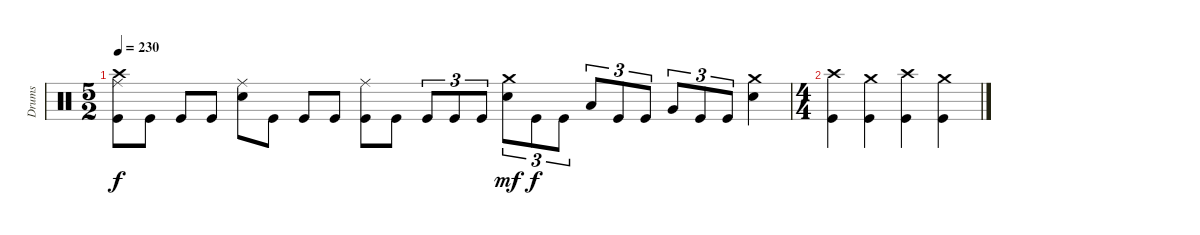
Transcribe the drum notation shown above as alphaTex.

\track ("Drums" "Drums") {instrument percussion}
\staff {score}
\articulation defaults
\ts (5 2)
\tempo 230
\clef neutral
\ks c
("Crash high (hit)" "Ride (middle)" "Kick (hit)").8{dy f} "Kick (hit)".8 "Kick (hit)".8 "Kick (hit)".8 ("Ride (middle)" "Electric Snare (hit)").8 "Kick (hit)".8 "Kick (hit)".8 "Kick (hit)".8 ("Ride (middle)" "Kick (hit)").8 "Kick (hit)".8 "Kick (hit)".8{tu (3 2)} "Kick (hit)".8{tu (3 2)} "Kick (hit)".8{tu (3 2)} ("Crash medium (hit)" "Electric Snare (hit)").8{tu (3 2) dy mf} "Kick (hit)".8{tu (3 2) dy f} "Kick (hit)".8{tu (3 2)} "Low Tom (hit)".8{tu (3 2)} "Kick (hit)".8{tu (3 2)} "Kick (hit)".8{tu (3 2)} "Very Low Tom (hit)".8{tu (3 2)} "Kick (hit)".8{tu (3 2)} "Kick (hit)".8{tu (3 2)} ("Crash medium (hit)" "Electric Snare (hit)").4 |
\ts (4 4)
("Crash high (hit)" "Kick (hit)").4 ("Crash medium (hit)" "Kick (hit)").4 ("Crash high (hit)" "Kick (hit)").4 ("Crash medium (hit)" "Kick (hit)").4
